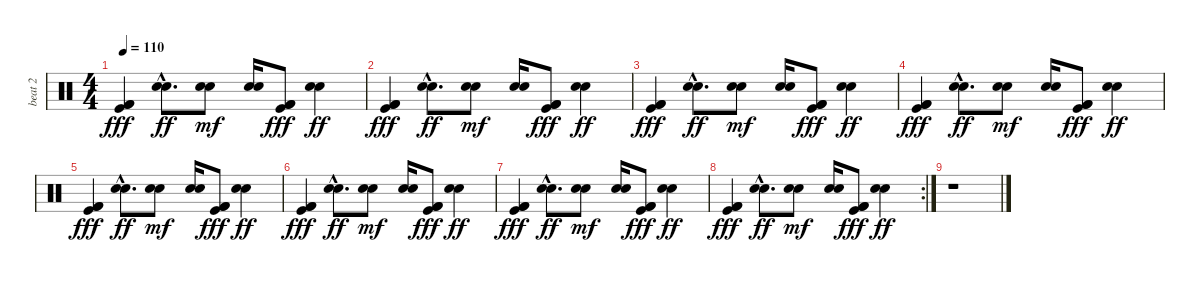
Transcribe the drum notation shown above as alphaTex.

\track ("beat 2" "beat 2") {instrument percussion}
\staff {score}
\articulation defaults
\ts (4 4)
\tempo 110
\clef neutral
\ks c
("Kick (hit)" "Kick (hit) 2" "Kick (hit) 2").4{dy fff} ("Snare (hit) 2"{hac} "Electric Snare (hit)"{hac}).8{d dy ff} ("Snare (hit) 2" "Electric Snare (hit)").8{dy mf} ("Snare (hit) 2" "Electric Snare (hit)").16 ("Kick (hit)" "Kick (hit) 2" "Kick (hit) 2").8{dy fff} ("Snare (hit) 2" "Electric Snare (hit)").4{dy ff} |
("Kick (hit)" "Kick (hit) 2" "Kick (hit) 2").4{dy fff} ("Snare (hit) 2"{hac} "Electric Snare (hit)"{hac}).8{d dy ff} ("Snare (hit) 2" "Electric Snare (hit)").8{dy mf} ("Snare (hit) 2" "Electric Snare (hit)").16 ("Kick (hit)" "Kick (hit) 2" "Kick (hit) 2").8{dy fff} ("Snare (hit) 2" "Electric Snare (hit)").4{dy ff} |
("Kick (hit)" "Kick (hit) 2" "Kick (hit) 2").4{dy fff} ("Snare (hit) 2"{hac} "Electric Snare (hit)"{hac}).8{d dy ff} ("Snare (hit) 2" "Electric Snare (hit)").8{dy mf} ("Snare (hit) 2" "Electric Snare (hit)").16 ("Kick (hit)" "Kick (hit) 2" "Kick (hit) 2").8{dy fff} ("Snare (hit) 2" "Electric Snare (hit)").4{dy ff} |
("Kick (hit)" "Kick (hit) 2" "Kick (hit) 2").4{dy fff} ("Snare (hit) 2"{hac} "Electric Snare (hit)"{hac}).8{d dy ff} ("Snare (hit) 2" "Electric Snare (hit)").8{dy mf} ("Snare (hit) 2" "Electric Snare (hit)").16 ("Kick (hit)" "Kick (hit) 2" "Kick (hit) 2").8{dy fff} ("Snare (hit) 2" "Electric Snare (hit)").4{dy ff} |
("Kick (hit)" "Kick (hit) 2" "Kick (hit) 2").4{dy fff} ("Snare (hit) 2"{hac} "Electric Snare (hit)"{hac}).8{d dy ff} ("Snare (hit) 2" "Electric Snare (hit)").8{dy mf} ("Snare (hit) 2" "Electric Snare (hit)").16 ("Kick (hit)" "Kick (hit) 2" "Kick (hit) 2").8{dy fff} ("Snare (hit) 2" "Electric Snare (hit)").4{dy ff} |
("Kick (hit)" "Kick (hit) 2" "Kick (hit) 2").4{dy fff} ("Snare (hit) 2"{hac} "Electric Snare (hit)"{hac}).8{d dy ff} ("Snare (hit) 2" "Electric Snare (hit)").8{dy mf} ("Snare (hit) 2" "Electric Snare (hit)").16 ("Kick (hit)" "Kick (hit) 2" "Kick (hit) 2").8{dy fff} ("Snare (hit) 2" "Electric Snare (hit)").4{dy ff} |
("Kick (hit)" "Kick (hit) 2" "Kick (hit) 2").4{dy fff} ("Snare (hit) 2"{hac} "Electric Snare (hit)"{hac}).8{d dy ff} ("Snare (hit) 2" "Electric Snare (hit)").8{dy mf} ("Snare (hit) 2" "Electric Snare (hit)").16 ("Kick (hit)" "Kick (hit) 2" "Kick (hit) 2").8{dy fff} ("Snare (hit) 2" "Electric Snare (hit)").4{dy ff} |
\rc 2
("Kick (hit)" "Kick (hit) 2" "Kick (hit) 2").4{dy fff} ("Snare (hit) 2"{hac} "Electric Snare (hit)"{hac}).8{d dy ff} ("Snare (hit) 2" "Electric Snare (hit)").8{dy mf} ("Snare (hit) 2" "Electric Snare (hit)").16 ("Kick (hit)" "Kick (hit) 2" "Kick (hit) 2").8{dy fff} ("Snare (hit) 2" "Electric Snare (hit)").4{dy ff} |
r.1
